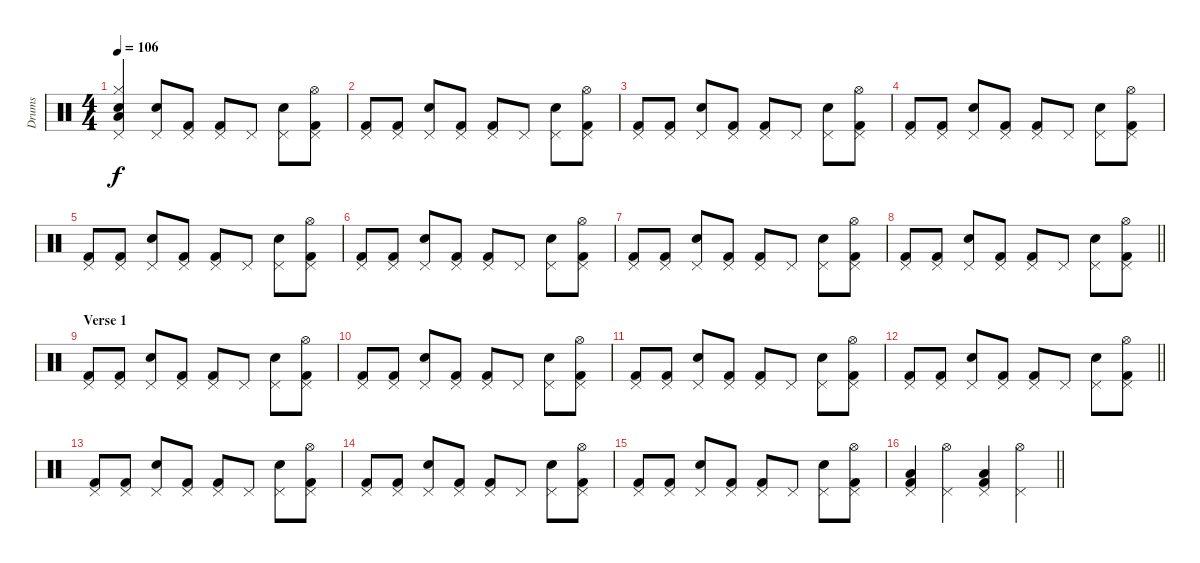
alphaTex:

\track ("Drums" "Drums") {instrument percussion}
\staff {score}
\articulation defaults
\ts (4 4)
\tempo 106
\clef neutral
\ks c
("Pedal Hi-Hat (hit)" "Snare (hit) 2" "Hi-Hat (closed)" "Low Tom (hit)").4{dy f} ("Pedal Hi-Hat (hit)" "Electric Snare (hit)").8 ("Pedal Hi-Hat (hit)" "Kick (hit) 2").8 ("Pedal Hi-Hat (hit)" "Kick (hit) 2").8 "Pedal Hi-Hat (hit)".8 ("Pedal Hi-Hat (hit)" "Electric Snare (hit)").8 ("Pedal Hi-Hat (hit)" "Hi-Hat (open)" "Kick (hit) 2").8 |
("Pedal Hi-Hat (hit)" "Kick (hit) 2").8 ("Pedal Hi-Hat (hit)" "Kick (hit) 2").8 ("Pedal Hi-Hat (hit)" "Electric Snare (hit)").8 ("Pedal Hi-Hat (hit)" "Kick (hit) 2").8 ("Pedal Hi-Hat (hit)" "Kick (hit) 2").8 "Pedal Hi-Hat (hit)".8 ("Pedal Hi-Hat (hit)" "Electric Snare (hit)").8 ("Pedal Hi-Hat (hit)" "Hi-Hat (open)" "Kick (hit) 2").8 |
("Pedal Hi-Hat (hit)" "Kick (hit) 2").8 ("Pedal Hi-Hat (hit)" "Kick (hit) 2").8 ("Pedal Hi-Hat (hit)" "Electric Snare (hit)").8 ("Pedal Hi-Hat (hit)" "Kick (hit) 2").8 ("Pedal Hi-Hat (hit)" "Kick (hit) 2").8 "Pedal Hi-Hat (hit)".8 ("Pedal Hi-Hat (hit)" "Electric Snare (hit)").8 ("Pedal Hi-Hat (hit)" "Hi-Hat (open)" "Kick (hit) 2").8 |
("Pedal Hi-Hat (hit)" "Kick (hit) 2").8 ("Pedal Hi-Hat (hit)" "Kick (hit) 2").8 ("Pedal Hi-Hat (hit)" "Electric Snare (hit)").8 ("Pedal Hi-Hat (hit)" "Kick (hit) 2").8 ("Pedal Hi-Hat (hit)" "Kick (hit) 2").8 "Pedal Hi-Hat (hit)".8 ("Pedal Hi-Hat (hit)" "Electric Snare (hit)").8 ("Pedal Hi-Hat (hit)" "Hi-Hat (open)" "Kick (hit) 2").8 |
("Pedal Hi-Hat (hit)" "Kick (hit) 2").8 ("Pedal Hi-Hat (hit)" "Kick (hit) 2").8 ("Pedal Hi-Hat (hit)" "Electric Snare (hit)").8 ("Pedal Hi-Hat (hit)" "Kick (hit) 2").8 ("Pedal Hi-Hat (hit)" "Kick (hit) 2").8 "Pedal Hi-Hat (hit)".8 ("Pedal Hi-Hat (hit)" "Electric Snare (hit)").8 ("Pedal Hi-Hat (hit)" "Hi-Hat (open)" "Kick (hit) 2").8 |
("Pedal Hi-Hat (hit)" "Kick (hit) 2").8 ("Pedal Hi-Hat (hit)" "Kick (hit) 2").8 ("Pedal Hi-Hat (hit)" "Electric Snare (hit)").8 ("Pedal Hi-Hat (hit)" "Kick (hit) 2").8 ("Pedal Hi-Hat (hit)" "Kick (hit) 2").8 "Pedal Hi-Hat (hit)".8 ("Pedal Hi-Hat (hit)" "Electric Snare (hit)").8 ("Pedal Hi-Hat (hit)" "Hi-Hat (open)" "Kick (hit) 2").8 |
("Pedal Hi-Hat (hit)" "Kick (hit) 2").8 ("Pedal Hi-Hat (hit)" "Kick (hit) 2").8 ("Pedal Hi-Hat (hit)" "Electric Snare (hit)").8 ("Pedal Hi-Hat (hit)" "Kick (hit) 2").8 ("Pedal Hi-Hat (hit)" "Kick (hit) 2").8 "Pedal Hi-Hat (hit)".8 ("Pedal Hi-Hat (hit)" "Electric Snare (hit)").8 ("Pedal Hi-Hat (hit)" "Hi-Hat (open)" "Kick (hit) 2").8 |
\barLineRight lightlight
("Pedal Hi-Hat (hit)" "Kick (hit) 2").8 ("Pedal Hi-Hat (hit)" "Kick (hit) 2").8 ("Pedal Hi-Hat (hit)" "Electric Snare (hit)").8 ("Pedal Hi-Hat (hit)" "Kick (hit) 2").8 ("Pedal Hi-Hat (hit)" "Kick (hit) 2").8 "Pedal Hi-Hat (hit)".8 ("Pedal Hi-Hat (hit)" "Electric Snare (hit)").8 ("Pedal Hi-Hat (hit)" "Hi-Hat (open)" "Kick (hit) 2").8 |
\section ("" "Verse 1")
("Pedal Hi-Hat (hit)" "Kick (hit) 2").8 ("Pedal Hi-Hat (hit)" "Kick (hit) 2").8 ("Pedal Hi-Hat (hit)" "Electric Snare (hit)").8 ("Pedal Hi-Hat (hit)" "Kick (hit) 2").8 ("Pedal Hi-Hat (hit)" "Kick (hit) 2").8 "Pedal Hi-Hat (hit)".8 ("Pedal Hi-Hat (hit)" "Electric Snare (hit)").8 ("Pedal Hi-Hat (hit)" "Hi-Hat (open)" "Kick (hit) 2").8 |
("Pedal Hi-Hat (hit)" "Kick (hit) 2").8 ("Pedal Hi-Hat (hit)" "Kick (hit) 2").8 ("Pedal Hi-Hat (hit)" "Electric Snare (hit)").8 ("Pedal Hi-Hat (hit)" "Kick (hit) 2").8 ("Pedal Hi-Hat (hit)" "Kick (hit) 2").8 "Pedal Hi-Hat (hit)".8 ("Pedal Hi-Hat (hit)" "Electric Snare (hit)").8 ("Pedal Hi-Hat (hit)" "Hi-Hat (open)" "Kick (hit) 2").8 |
("Pedal Hi-Hat (hit)" "Kick (hit) 2").8 ("Pedal Hi-Hat (hit)" "Kick (hit) 2").8 ("Pedal Hi-Hat (hit)" "Electric Snare (hit)").8 ("Pedal Hi-Hat (hit)" "Kick (hit) 2").8 ("Pedal Hi-Hat (hit)" "Kick (hit) 2").8 "Pedal Hi-Hat (hit)".8 ("Pedal Hi-Hat (hit)" "Electric Snare (hit)").8 ("Pedal Hi-Hat (hit)" "Hi-Hat (open)" "Kick (hit) 2").8 |
\barLineRight lightlight
("Pedal Hi-Hat (hit)" "Kick (hit) 2").8 ("Pedal Hi-Hat (hit)" "Kick (hit) 2").8 ("Pedal Hi-Hat (hit)" "Electric Snare (hit)").8 ("Pedal Hi-Hat (hit)" "Kick (hit) 2").8 ("Pedal Hi-Hat (hit)" "Kick (hit) 2").8 "Pedal Hi-Hat (hit)".8 ("Pedal Hi-Hat (hit)" "Electric Snare (hit)").8 ("Pedal Hi-Hat (hit)" "Hi-Hat (open)" "Kick (hit) 2").8 |
("Pedal Hi-Hat (hit)" "Kick (hit) 2").8 ("Pedal Hi-Hat (hit)" "Kick (hit) 2").8 ("Pedal Hi-Hat (hit)" "Electric Snare (hit)").8 ("Pedal Hi-Hat (hit)" "Kick (hit) 2").8 ("Pedal Hi-Hat (hit)" "Kick (hit) 2").8 "Pedal Hi-Hat (hit)".8 ("Pedal Hi-Hat (hit)" "Electric Snare (hit)").8 ("Pedal Hi-Hat (hit)" "Hi-Hat (open)" "Kick (hit) 2").8 |
("Pedal Hi-Hat (hit)" "Kick (hit) 2").8 ("Pedal Hi-Hat (hit)" "Kick (hit) 2").8 ("Pedal Hi-Hat (hit)" "Electric Snare (hit)").8 ("Pedal Hi-Hat (hit)" "Kick (hit) 2").8 ("Pedal Hi-Hat (hit)" "Kick (hit) 2").8 "Pedal Hi-Hat (hit)".8 ("Pedal Hi-Hat (hit)" "Electric Snare (hit)").8 ("Pedal Hi-Hat (hit)" "Hi-Hat (open)" "Kick (hit) 2").8 |
("Pedal Hi-Hat (hit)" "Kick (hit) 2").8 ("Pedal Hi-Hat (hit)" "Kick (hit) 2").8 ("Pedal Hi-Hat (hit)" "Electric Snare (hit)").8 ("Pedal Hi-Hat (hit)" "Kick (hit) 2").8 ("Pedal Hi-Hat (hit)" "Kick (hit) 2").8 "Pedal Hi-Hat (hit)".8 ("Pedal Hi-Hat (hit)" "Electric Snare (hit)").8 ("Pedal Hi-Hat (hit)" "Hi-Hat (open)" "Kick (hit) 2").8 |
\barLineRight lightlight
("Pedal Hi-Hat (hit)" "Kick (hit) 2" "Low Tom (hit)").4 ("Pedal Hi-Hat (hit)" "Hi-Hat (open)").4 ("Pedal Hi-Hat (hit)" "Kick (hit) 2" "Low Tom (hit)").4 ("Pedal Hi-Hat (hit)" "Hi-Hat (open)").4
